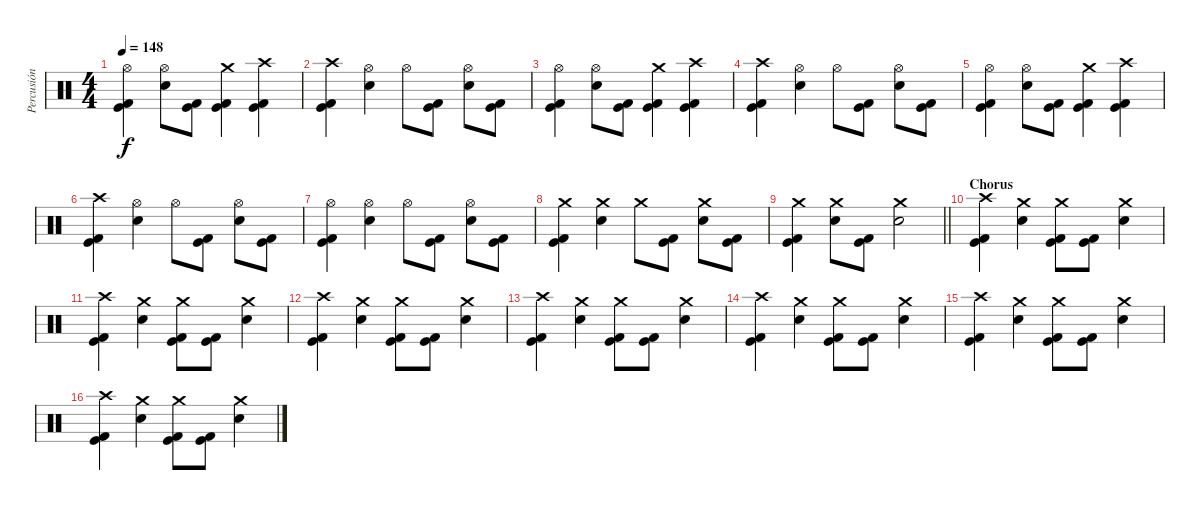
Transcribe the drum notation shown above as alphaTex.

\track ("Percusión" "Percusión") {instrument percussion}
\staff {score}
\articulation defaults
\ts (4 4)
\tempo 148
\clef neutral
\ks c
("Hi-Hat (open)" "Kick (hit)" "Kick (hit) 2").4{dy f} ("Hi-Hat (open)" "Electric Snare (hit)").8 ("Kick (hit)" "Kick (hit) 2").8 ("Crash medium (hit)" "Kick (hit)" "Kick (hit) 2").4 ("Crash high (hit)" "Kick (hit)" "Kick (hit) 2").4 |
("Crash high (hit)" "Kick (hit)" "Kick (hit) 2").4 ("Hi-Hat (open)" "Electric Snare (hit)").4 "Hi-Hat (open)".8 ("Kick (hit)" "Kick (hit) 2").8 ("Hi-Hat (open)" "Electric Snare (hit)").8 ("Kick (hit)" "Kick (hit) 2").8 |
("Hi-Hat (open)" "Kick (hit)" "Kick (hit) 2").4 ("Hi-Hat (open)" "Electric Snare (hit)").8 ("Kick (hit)" "Kick (hit) 2").8 ("Crash medium (hit)" "Kick (hit)" "Kick (hit) 2").4 ("Crash high (hit)" "Kick (hit)" "Kick (hit) 2").4 |
("Crash high (hit)" "Kick (hit)" "Kick (hit) 2").4 ("Hi-Hat (open)" "Electric Snare (hit)").4 "Hi-Hat (open)".8 ("Kick (hit)" "Kick (hit) 2").8 ("Hi-Hat (open)" "Electric Snare (hit)").8 ("Kick (hit)" "Kick (hit) 2").8 |
("Hi-Hat (open)" "Kick (hit)" "Kick (hit) 2").4 ("Hi-Hat (open)" "Electric Snare (hit)").8 ("Kick (hit)" "Kick (hit) 2").8 ("Crash medium (hit)" "Kick (hit)" "Kick (hit) 2").4 ("Crash high (hit)" "Kick (hit)" "Kick (hit) 2").4 |
("Crash high (hit)" "Kick (hit)" "Kick (hit) 2").4 ("Hi-Hat (open)" "Electric Snare (hit)").4 "Hi-Hat (open)".8 ("Kick (hit)" "Kick (hit) 2").8 ("Hi-Hat (open)" "Electric Snare (hit)").8 ("Kick (hit)" "Kick (hit) 2").8 |
("Hi-Hat (open)" "Kick (hit)" "Kick (hit) 2").4 ("Hi-Hat (open)" "Electric Snare (hit)").4 "Hi-Hat (open)".8 ("Kick (hit)" "Kick (hit) 2").8 ("Hi-Hat (open)" "Electric Snare (hit)").8 ("Kick (hit)" "Kick (hit) 2").8 |
("Crash medium (hit)" "Kick (hit)" "Kick (hit) 2").4 ("Crash medium (hit)" "Electric Snare (hit)").4 "Crash medium (hit)".8 ("Kick (hit)" "Kick (hit) 2").8 ("Crash medium (hit)" "Electric Snare (hit)").8 ("Kick (hit)" "Kick (hit) 2").8 |
\barLineRight lightlight
("Crash medium (hit)" "Kick (hit)" "Kick (hit) 2").4 ("Crash medium (hit)" "Electric Snare (hit)").8 ("Kick (hit)" "Kick (hit) 2").8 ("Crash medium (hit)" "Electric Snare (hit)").2 |
\section ("" "Chorus")
("Crash high (hit)" "Kick (hit)" "Kick (hit) 2").4 ("Crash medium (hit)" "Electric Snare (hit)").4 ("Crash medium (hit)" "Kick (hit)" "Kick (hit) 2").8 ("Kick (hit)" "Kick (hit) 2").8 ("Crash medium (hit)" "Electric Snare (hit)").4 |
("Crash high (hit)" "Kick (hit)" "Kick (hit) 2").4 ("Crash medium (hit)" "Electric Snare (hit)").4 ("Crash medium (hit)" "Kick (hit)" "Kick (hit) 2").8 ("Kick (hit)" "Kick (hit) 2").8 ("Crash medium (hit)" "Electric Snare (hit)").4 |
("Crash high (hit)" "Kick (hit)" "Kick (hit) 2").4 ("Crash medium (hit)" "Electric Snare (hit)").4 ("Crash medium (hit)" "Kick (hit)" "Kick (hit) 2").8 ("Kick (hit)" "Kick (hit) 2").8 ("Crash medium (hit)" "Electric Snare (hit)").4 |
("Crash high (hit)" "Kick (hit)" "Kick (hit) 2").4 ("Crash medium (hit)" "Electric Snare (hit)").4 ("Crash medium (hit)" "Kick (hit)" "Kick (hit) 2").8 ("Kick (hit)" "Kick (hit) 2").8 ("Crash medium (hit)" "Electric Snare (hit)").4 |
("Crash high (hit)" "Kick (hit)" "Kick (hit) 2").4 ("Crash medium (hit)" "Electric Snare (hit)").4 ("Crash medium (hit)" "Kick (hit)" "Kick (hit) 2").8 ("Kick (hit)" "Kick (hit) 2").8 ("Crash medium (hit)" "Electric Snare (hit)").4 |
("Crash high (hit)" "Kick (hit)" "Kick (hit) 2").4 ("Crash medium (hit)" "Electric Snare (hit)").4 ("Crash medium (hit)" "Kick (hit)" "Kick (hit) 2").8 ("Kick (hit)" "Kick (hit) 2").8 ("Crash medium (hit)" "Electric Snare (hit)").4 |
("Crash high (hit)" "Kick (hit)" "Kick (hit) 2").4 ("Crash medium (hit)" "Electric Snare (hit)").4 ("Crash medium (hit)" "Kick (hit)" "Kick (hit) 2").8 ("Kick (hit)" "Kick (hit) 2").8 ("Crash medium (hit)" "Electric Snare (hit)").4
